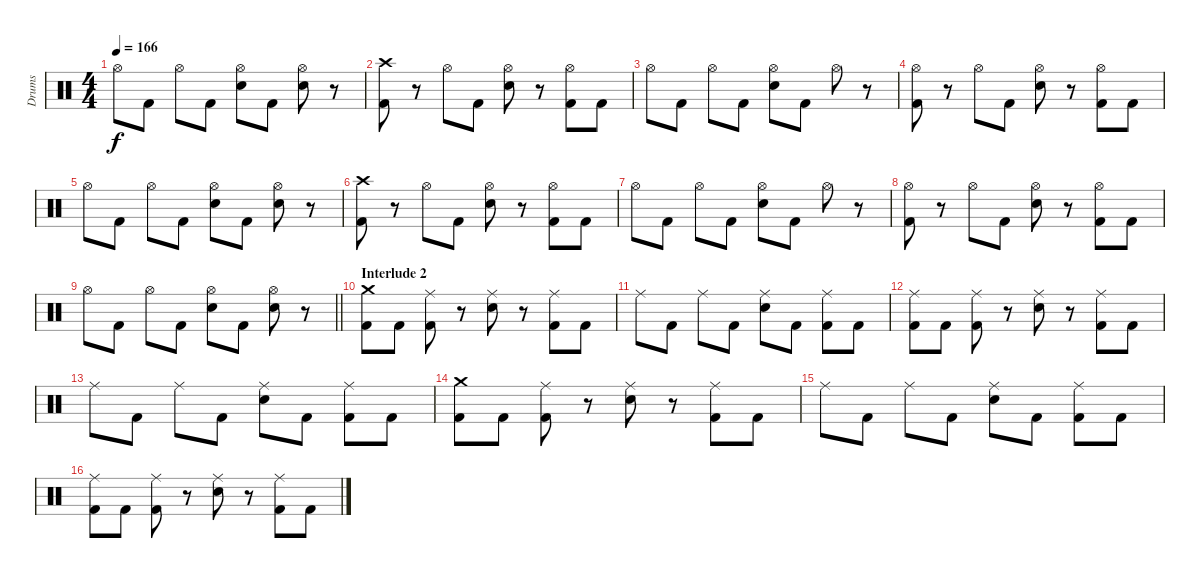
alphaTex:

\track ("Drums" "Drums") {instrument percussion}
\staff {score}
\articulation defaults
\ts (4 4)
\tempo 166
\clef neutral
\ks c "Hi-Hat (open)".8{dy f} "Kick (hit) 2".8 "Hi-Hat (open)".8 "Kick (hit) 2".8
("Hi-Hat (open)" "Electric Snare (hit)").8 "Kick (hit) 2".8 ("Hi-Hat (open)" "Electric Snare (hit)").8 r.8 |
("Crash high (hit)" "Kick (hit) 2").8 r.8 "Hi-Hat (open)".8 "Kick (hit) 2".8 ("Hi-Hat (open)" "Electric Snare (hit)").8 r.8 ("Hi-Hat (open)" "Kick (hit) 2").8 "Kick (hit) 2".8 |
"Hi-Hat (open)".8 "Kick (hit) 2".8 "Hi-Hat (open)".8 "Kick (hit) 2".8 ("Hi-Hat (open)" "Electric Snare (hit)").8 "Kick (hit) 2".8 "Hi-Hat (open)".8 r.8 |
("Hi-Hat (open)" "Kick (hit) 2").8 r.8 "Hi-Hat (open)".8 "Kick (hit) 2".8 ("Hi-Hat (open)" "Electric Snare (hit)").8 r.8 ("Hi-Hat (open)" "Kick (hit) 2").8 "Kick (hit) 2".8 |
"Hi-Hat (open)".8 "Kick (hit) 2".8 "Hi-Hat (open)".8 "Kick (hit) 2".8 ("Hi-Hat (open)" "Electric Snare (hit)").8 "Kick (hit) 2".8 ("Hi-Hat (open)" "Electric Snare (hit)").8 r.8 |
("Crash high (hit)" "Kick (hit) 2").8 r.8 "Hi-Hat (open)".8 "Kick (hit) 2".8 ("Hi-Hat (open)" "Electric Snare (hit)").8 r.8 ("Hi-Hat (open)" "Kick (hit) 2").8 "Kick (hit) 2".8 |
"Hi-Hat (open)".8 "Kick (hit) 2".8 "Hi-Hat (open)".8 "Kick (hit) 2".8 ("Hi-Hat (open)" "Electric Snare (hit)").8 "Kick (hit) 2".8 "Hi-Hat (open)".8 r.8 |
("Hi-Hat (open)" "Kick (hit) 2").8 r.8 "Hi-Hat (open)".8 "Kick (hit) 2".8 ("Hi-Hat (open)" "Electric Snare (hit)").8 r.8 ("Hi-Hat (open)" "Kick (hit) 2").8 "Kick (hit) 2".8 |
\barLineRight lightlight "Hi-Hat (open)".8 "Kick (hit) 2".8 "Hi-Hat (open)".8 "Kick (hit) 2".8
("Hi-Hat (open)" "Electric Snare (hit)").8 "Kick (hit) 2".8 ("Hi-Hat (open)" "Electric Snare (hit)").8 r.8 |
\section ("" "Interlude 2")
("Crash medium (hit)" "Kick (hit) 2").8 "Kick (hit) 2".8 ("Ride (middle)" "Kick (hit) 2").8 r.8 ("Ride (middle)" "Electric Snare (hit)").8 r.8 ("Ride (middle)" "Kick (hit) 2").8 "Kick (hit) 2".8 |
"Ride (middle)".8 "Kick (hit) 2".8 "Ride (middle)".8 "Kick (hit) 2".8 ("Ride (middle)" "Electric Snare (hit)").8 "Kick (hit) 2".8 ("Ride (middle)" "Kick (hit) 2").8 "Kick (hit) 2".8 |
("Ride (middle)" "Kick (hit) 2").8 "Kick (hit) 2".8 ("Ride (middle)" "Kick (hit) 2").8 r.8 ("Ride (middle)" "Electric Snare (hit)").8 r.8 ("Ride (middle)" "Kick (hit) 2").8 "Kick (hit) 2".8 |
"Ride (middle)".8 "Kick (hit) 2".8 "Ride (middle)".8 "Kick (hit) 2".8 ("Ride (middle)" "Electric Snare (hit)").8 "Kick (hit) 2".8 ("Ride (middle)" "Kick (hit) 2").8 "Kick (hit) 2".8 |
("Crash medium (hit)" "Kick (hit) 2").8 "Kick (hit) 2".8 ("Ride (middle)" "Kick (hit) 2").8 r.8 ("Ride (middle)" "Electric Snare (hit)").8 r.8 ("Ride (middle)" "Kick (hit) 2").8 "Kick (hit) 2".8 |
"Ride (middle)".8 "Kick (hit) 2".8 "Ride (middle)".8 "Kick (hit) 2".8 ("Ride (middle)" "Electric Snare (hit)").8 "Kick (hit) 2".8 ("Ride (middle)" "Kick (hit) 2").8 "Kick (hit) 2".8 |
("Ride (middle)" "Kick (hit) 2").8 "Kick (hit) 2".8 ("Ride (middle)" "Kick (hit) 2").8 r.8 ("Ride (middle)" "Electric Snare (hit)").8 r.8 ("Ride (middle)" "Kick (hit) 2").8 "Kick (hit) 2".8
